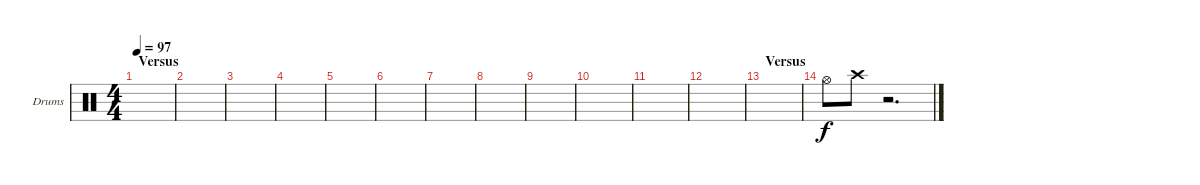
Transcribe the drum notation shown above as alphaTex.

\bracketExtendMode groupsimilarinstruments
\firstSystemTrackNameOrientation horizontal
\otherSystemsTrackNameOrientation horizontal
\track ("OH" "Drums") {instrument percussion}
\staff {score}
\articulation defaults
\ts (4 4)
\section ("" "Versus")
\tempo 97
\clef neutral
\ks c
|
|
|
|
|
|
|
|
|
|
|
|
\section ("" "Versus")
|
"Hi-Hat (open)".8 "Crash high (hit)".8 r.2{d}
